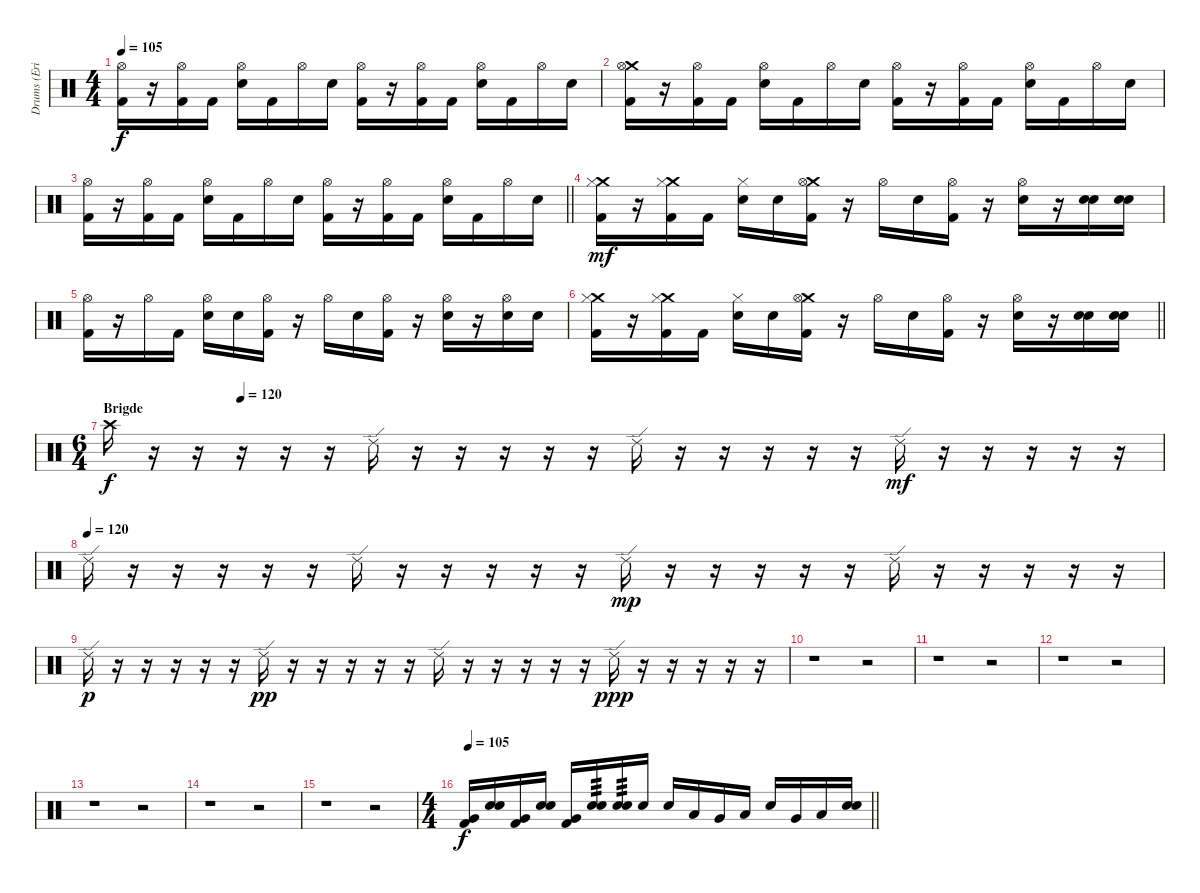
\track ("Drums (Eric Kretz)" "Drums (Eri") {instrument percussion}
\staff {score}
\articulation defaults
\ts (4 4)
\tempo 105
\clef neutral
\ks c
("Hi-Hat (open)" "Kick (hit) 2").16{dy f} r.16 ("Hi-Hat (open)" "Kick (hit) 2").16 "Kick (hit) 2".16 ("Hi-Hat (open)" "Electric Snare (hit)").16 "Kick (hit) 2".16 "Hi-Hat (open)".16 "Electric Snare (hit)".16 ("Hi-Hat (open)" "Kick (hit) 2").16 r.16 ("Hi-Hat (open)" "Kick (hit) 2").16 "Kick (hit) 2".16 ("Hi-Hat (open)" "Electric Snare (hit)").16 "Kick (hit) 2".16 "Hi-Hat (open)".16 "Electric Snare (hit)".16 |
("Crash medium (hit)" "Hi-Hat (open)" "Kick (hit) 2").16 r.16 ("Hi-Hat (open)" "Kick (hit) 2").16 "Kick (hit) 2".16 ("Hi-Hat (open)" "Electric Snare (hit)").16 "Kick (hit) 2".16 "Hi-Hat (open)".16 "Electric Snare (hit)".16 ("Hi-Hat (open)" "Kick (hit) 2").16 r.16 ("Hi-Hat (open)" "Kick (hit) 2").16 "Kick (hit) 2".16 ("Hi-Hat (open)" "Electric Snare (hit)").16 "Kick (hit) 2".16 "Hi-Hat (open)".16 "Electric Snare (hit)".16 |
\barLineRight lightlight
("Hi-Hat (open)" "Kick (hit) 2").16 r.16 ("Hi-Hat (open)" "Kick (hit) 2").16 "Kick (hit) 2".16 ("Hi-Hat (open)" "Electric Snare (hit)").16 "Kick (hit) 2".16 "Hi-Hat (open)".16 "Electric Snare (hit)".16 ("Hi-Hat (open)" "Kick (hit) 2").16 r.16 ("Hi-Hat (open)" "Kick (hit) 2").16 "Kick (hit) 2".16 ("Hi-Hat (open)" "Electric Snare (hit)").16 "Kick (hit) 2".16 "Hi-Hat (open)".16 "Electric Snare (hit)".16 |
("Crash medium (hit)" "Hi-Hat (closed)" "Kick (hit) 2").16{dy mf} r.16 ("Crash medium (hit)" "Hi-Hat (closed)" "Kick (hit) 2").16 "Kick (hit) 2".16 ("Hi-Hat (closed)" "Electric Snare (hit)").16 "Electric Snare (hit)".16 ("Crash medium (hit)" "Hi-Hat (open)" "Kick (hit) 2").16 r.16 "Hi-Hat (open)".16 "Electric Snare (hit)".16 ("Hi-Hat (open)" "Kick (hit) 2").16 r.16 ("Hi-Hat (open)" "Electric Snare (hit)").16 r.16 ("Snare (hit) 2" "Electric Snare (hit)").16 ("Snare (hit) 2" "Electric Snare (hit)").16 |
("Hi-Hat (open)" "Kick (hit) 2").16 r.16 "Hi-Hat (open)".16 "Kick (hit) 2".16 ("Hi-Hat (open)" "Electric Snare (hit)").16 "Electric Snare (hit)".16 ("Hi-Hat (open)" "Kick (hit) 2").16 r.16 "Hi-Hat (open)".16 "Electric Snare (hit)".16 ("Hi-Hat (open)" "Kick (hit) 2").16 r.16 ("Hi-Hat (open)" "Electric Snare (hit)").16 r.16 ("Hi-Hat (open)" "Electric Snare (hit)").16 "Electric Snare (hit)".16 |
\barLineRight lightlight
("Crash medium (hit)" "Hi-Hat (closed)" "Kick (hit) 2").16 r.16 ("Crash medium (hit)" "Hi-Hat (closed)" "Kick (hit) 2").16 "Kick (hit) 2".16 ("Hi-Hat (closed)" "Electric Snare (hit)").16 "Electric Snare (hit)".16 ("Crash medium (hit)" "Hi-Hat (open)" "Kick (hit) 2").16 r.16 "Hi-Hat (open)".16 "Electric Snare (hit)".16 ("Hi-Hat (open)" "Kick (hit) 2").16 r.16 ("Hi-Hat (open)" "Electric Snare (hit)").16 r.16 ("Snare (hit) 2" "Electric Snare (hit)").16 ("Snare (hit) 2" "Electric Snare (hit)").16 |
\ts (6 4)
\section ("" "Brigde")
\tempo (120 0.125)
"Crash high (hit)".16{dy f} r.16 r.16 r.16 r.16 r.16 "Ride (edge) 2".16 r.16 r.16 r.16 r.16 r.16 "Ride (edge) 2".16 r.16 r.16 r.16 r.16 r.16 "Ride (edge) 2".16{dy mf} r.16 r.16 r.16 r.16 r.16 |
\tempo (120)
"Ride (edge) 2".16 r.16 r.16 r.16 r.16 r.16 "Ride (edge) 2".16 r.16 r.16 r.16 r.16 r.16 "Ride (edge) 2".16{dy mp} r.16 r.16 r.16 r.16 r.16 "Ride (edge) 2".16 r.16 r.16 r.16 r.16 r.16 |
"Ride (edge) 2".16{dy p} r.16 r.16 r.16 r.16 r.16 "Ride (edge) 2".16{dy pp} r.16 r.16 r.16 r.16 r.16 "Ride (edge) 2".16 r.16 r.16 r.16 r.16 r.16 "Ride (edge) 2".16{dy ppp} r.16 r.16 r.16 r.16 r.16 |
r.1 r.2 |
r.1 r.2 |
r.1 r.2 |
r.1 r.2 |
r.1 r.2 |
r.1 r.2 |
\ts (4 4)
\tempo 105
\barLineRight lightlight
("Very Low Tom (hit)" "Kick (hit) 2").16{dy f} ("Snare (hit) 2" "Electric Snare (hit)").16 ("Very Low Tom (hit)" "Kick (hit) 2").16 ("Snare (hit) 2" "Electric Snare (hit)").16 ("Very Low Tom (hit)" "Kick (hit) 2").16 ("Snare (hit) 2" "Electric Snare (hit)").16{tp 3} ("Snare (hit) 2" "Electric Snare (hit)").16{tp 3} "Electric Snare (hit)".16 "Electric Snare (hit)".16 "Low Tom (hit)".16 "Very Low Tom (hit)".16 "Low Floor Tom (hit)".16 "Electric Snare (hit)".16 "Very Low Tom (hit)".16 "Low Floor Tom (hit)".16 ("Snare (hit) 2" "Electric Snare (hit)").16
